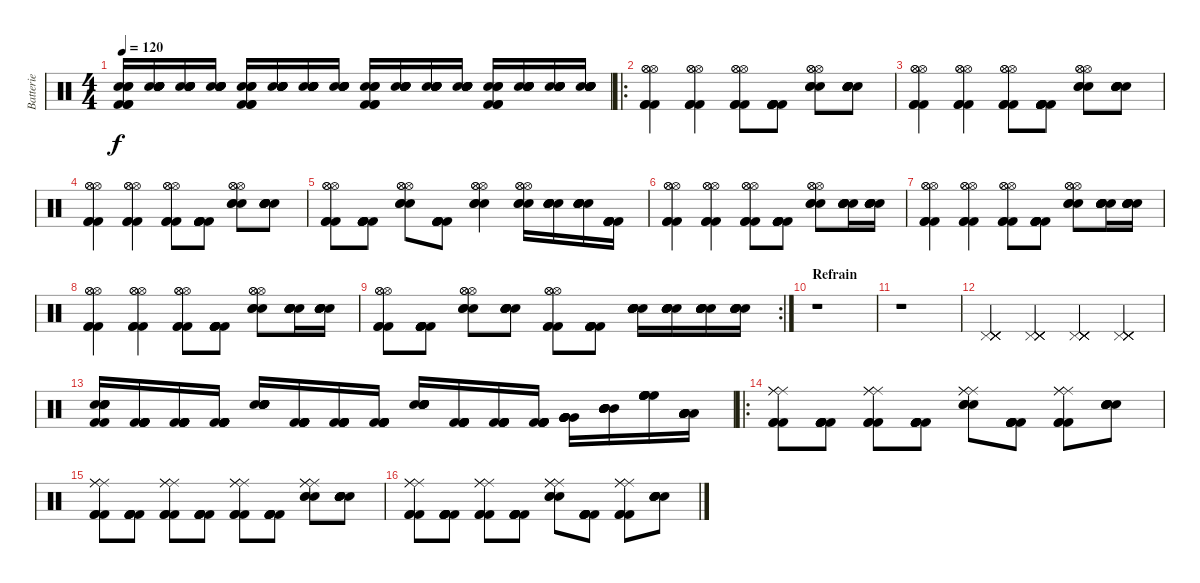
\track ("Batterie" "Batterie") {instrument percussion}
\staff {score}
\articulation defaults
\ts (4 4)
\tempo 120
\clef neutral
\ks c
("Kick (hit) 2" "Kick (hit) 2" "Kick (hit) 2" "Snare (hit) 2" "Snare (hit) 2" "Snare (hit) 2").16{dy f} ("Snare (hit) 2" "Snare (hit) 2" "Snare (hit) 2" "Snare (hit) 2" "Snare (hit) 2" "Snare (hit) 2").16 ("Snare (hit) 2" "Snare (hit) 2" "Snare (hit) 2" "Snare (hit) 2" "Snare (hit) 2" "Snare (hit) 2").16 ("Snare (hit) 2" "Snare (hit) 2" "Snare (hit) 2" "Snare (hit) 2" "Snare (hit) 2" "Snare (hit) 2").16 ("Kick (hit) 2" "Kick (hit) 2" "Kick (hit) 2" "Snare (hit) 2" "Snare (hit) 2" "Snare (hit) 2").16 ("Snare (hit) 2" "Snare (hit) 2" "Snare (hit) 2" "Snare (hit) 2" "Snare (hit) 2" "Snare (hit) 2").16 ("Snare (hit) 2" "Snare (hit) 2" "Snare (hit) 2" "Snare (hit) 2" "Snare (hit) 2" "Snare (hit) 2").16 ("Snare (hit) 2" "Snare (hit) 2" "Snare (hit) 2" "Snare (hit) 2" "Snare (hit) 2" "Snare (hit) 2").16 ("Kick (hit) 2" "Kick (hit) 2" "Kick (hit) 2" "Snare (hit) 2" "Snare (hit) 2" "Snare (hit) 2").16 ("Snare (hit) 2" "Snare (hit) 2" "Snare (hit) 2" "Snare (hit) 2" "Snare (hit) 2" "Snare (hit) 2").16 ("Snare (hit) 2" "Snare (hit) 2" "Snare (hit) 2" "Snare (hit) 2" "Snare (hit) 2" "Snare (hit) 2").16 ("Snare (hit) 2" "Snare (hit) 2" "Snare (hit) 2" "Snare (hit) 2" "Snare (hit) 2" "Snare (hit) 2").16 ("Kick (hit) 2" "Kick (hit) 2" "Kick (hit) 2" "Snare (hit) 2" "Snare (hit) 2" "Snare (hit) 2").16 ("Snare (hit) 2" "Snare (hit) 2" "Snare (hit) 2" "Snare (hit) 2" "Snare (hit) 2" "Snare (hit) 2").16 ("Snare (hit) 2" "Snare (hit) 2" "Snare (hit) 2" "Snare (hit) 2" "Snare (hit) 2" "Snare (hit) 2").16 ("Snare (hit) 2" "Snare (hit) 2" "Snare (hit) 2" "Snare (hit) 2" "Snare (hit) 2" "Snare (hit) 2").16 |
\ro
("Hi-Hat (open)" "Hi-Hat (open)" "Hi-Hat (open)" "Kick (hit) 2" "Kick (hit) 2" "Kick (hit) 2").4 ("Hi-Hat (open)" "Hi-Hat (open)" "Hi-Hat (open)" "Kick (hit) 2" "Kick (hit) 2" "Kick (hit) 2").4 ("Hi-Hat (open)" "Hi-Hat (open)" "Hi-Hat (open)" "Kick (hit) 2" "Kick (hit) 2" "Kick (hit) 2").8 ("Kick (hit) 2" "Kick (hit) 2" "Kick (hit) 2" "Kick (hit) 2" "Kick (hit) 2" "Kick (hit) 2").8 ("Hi-Hat (open)" "Hi-Hat (open)" "Hi-Hat (open)" "Snare (hit) 2" "Snare (hit) 2" "Snare (hit) 2").8 ("Snare (hit) 2" "Snare (hit) 2" "Snare (hit) 2" "Snare (hit) 2" "Snare (hit) 2" "Snare (hit) 2").8 |
("Hi-Hat (open)" "Hi-Hat (open)" "Hi-Hat (open)" "Kick (hit) 2" "Kick (hit) 2" "Kick (hit) 2").4 ("Hi-Hat (open)" "Hi-Hat (open)" "Hi-Hat (open)" "Kick (hit) 2" "Kick (hit) 2" "Kick (hit) 2").4 ("Hi-Hat (open)" "Hi-Hat (open)" "Hi-Hat (open)" "Kick (hit) 2" "Kick (hit) 2" "Kick (hit) 2").8 ("Kick (hit) 2" "Kick (hit) 2" "Kick (hit) 2" "Kick (hit) 2" "Kick (hit) 2" "Kick (hit) 2").8 ("Hi-Hat (open)" "Hi-Hat (open)" "Hi-Hat (open)" "Snare (hit) 2" "Snare (hit) 2" "Snare (hit) 2").8 ("Snare (hit) 2" "Snare (hit) 2" "Snare (hit) 2" "Snare (hit) 2" "Snare (hit) 2" "Snare (hit) 2").8 |
("Hi-Hat (open)" "Hi-Hat (open)" "Hi-Hat (open)" "Kick (hit) 2" "Kick (hit) 2" "Kick (hit) 2").4 ("Hi-Hat (open)" "Hi-Hat (open)" "Hi-Hat (open)" "Kick (hit) 2" "Kick (hit) 2" "Kick (hit) 2").4 ("Hi-Hat (open)" "Hi-Hat (open)" "Hi-Hat (open)" "Kick (hit) 2" "Kick (hit) 2" "Kick (hit) 2").8 ("Kick (hit) 2" "Kick (hit) 2" "Kick (hit) 2" "Kick (hit) 2" "Kick (hit) 2" "Kick (hit) 2").8 ("Hi-Hat (open)" "Hi-Hat (open)" "Hi-Hat (open)" "Snare (hit) 2" "Snare (hit) 2" "Snare (hit) 2").8 ("Snare (hit) 2" "Snare (hit) 2" "Snare (hit) 2" "Snare (hit) 2" "Snare (hit) 2" "Snare (hit) 2").8 |
("Hi-Hat (open)" "Hi-Hat (open)" "Hi-Hat (open)" "Kick (hit) 2" "Kick (hit) 2" "Kick (hit) 2").8 ("Kick (hit) 2" "Kick (hit) 2" "Kick (hit) 2" "Kick (hit) 2" "Kick (hit) 2" "Kick (hit) 2").8 ("Snare (hit) 2" "Snare (hit) 2" "Snare (hit) 2" "Hi-Hat (open)" "Hi-Hat (open)" "Hi-Hat (open)").8 ("Kick (hit) 2" "Kick (hit) 2" "Kick (hit) 2" "Kick (hit) 2" "Kick (hit) 2" "Kick (hit) 2").8 ("Snare (hit) 2" "Snare (hit) 2" "Hi-Hat (open)" "Hi-Hat (open)" "Snare (hit) 2" "Hi-Hat (open)").4 ("Hi-Hat (open)" "Hi-Hat (open)" "Hi-Hat (open)" "Snare (hit) 2" "Snare (hit) 2" "Snare (hit) 2").16 ("Snare (hit) 2" "Snare (hit) 2" "Snare (hit) 2" "Snare (hit) 2" "Snare (hit) 2" "Snare (hit) 2").16 ("Snare (hit) 2" "Snare (hit) 2" "Snare (hit) 2" "Snare (hit) 2" "Snare (hit) 2" "Snare (hit) 2").16 ("Kick (hit) 2" "Kick (hit) 2" "Kick (hit) 2" "Kick (hit) 2" "Kick (hit) 2" "Kick (hit) 2").16 |
("Hi-Hat (open)" "Hi-Hat (open)" "Hi-Hat (open)" "Kick (hit) 2" "Kick (hit) 2" "Kick (hit) 2").4 ("Hi-Hat (open)" "Hi-Hat (open)" "Hi-Hat (open)" "Kick (hit) 2" "Kick (hit) 2" "Kick (hit) 2").4 ("Hi-Hat (open)" "Hi-Hat (open)" "Hi-Hat (open)" "Kick (hit) 2" "Kick (hit) 2" "Kick (hit) 2").8 ("Kick (hit) 2" "Kick (hit) 2" "Kick (hit) 2" "Kick (hit) 2" "Kick (hit) 2" "Kick (hit) 2").8 ("Hi-Hat (open)" "Hi-Hat (open)" "Hi-Hat (open)" "Snare (hit) 2" "Snare (hit) 2" "Snare (hit) 2").8 ("Snare (hit) 2" "Snare (hit) 2" "Snare (hit) 2" "Snare (hit) 2" "Snare (hit) 2" "Snare (hit) 2").16 ("Snare (hit) 2" "Snare (hit) 2" "Snare (hit) 2" "Snare (hit) 2" "Snare (hit) 2" "Snare (hit) 2").16 |
("Hi-Hat (open)" "Hi-Hat (open)" "Hi-Hat (open)" "Kick (hit) 2" "Kick (hit) 2" "Kick (hit) 2").4 ("Hi-Hat (open)" "Hi-Hat (open)" "Hi-Hat (open)" "Kick (hit) 2" "Kick (hit) 2" "Kick (hit) 2").4 ("Hi-Hat (open)" "Hi-Hat (open)" "Hi-Hat (open)" "Kick (hit) 2" "Kick (hit) 2" "Kick (hit) 2").8 ("Kick (hit) 2" "Kick (hit) 2" "Kick (hit) 2" "Kick (hit) 2" "Kick (hit) 2" "Kick (hit) 2").8 ("Hi-Hat (open)" "Hi-Hat (open)" "Hi-Hat (open)" "Snare (hit) 2" "Snare (hit) 2" "Snare (hit) 2").8 ("Snare (hit) 2" "Snare (hit) 2" "Snare (hit) 2" "Snare (hit) 2" "Snare (hit) 2" "Snare (hit) 2").16 ("Snare (hit) 2" "Snare (hit) 2" "Snare (hit) 2" "Snare (hit) 2" "Snare (hit) 2" "Snare (hit) 2").16 |
("Hi-Hat (open)" "Hi-Hat (open)" "Hi-Hat (open)" "Kick (hit) 2" "Kick (hit) 2" "Kick (hit) 2").4 ("Hi-Hat (open)" "Hi-Hat (open)" "Hi-Hat (open)" "Kick (hit) 2" "Kick (hit) 2" "Kick (hit) 2").4 ("Hi-Hat (open)" "Hi-Hat (open)" "Hi-Hat (open)" "Kick (hit) 2" "Kick (hit) 2" "Kick (hit) 2").8 ("Kick (hit) 2" "Kick (hit) 2" "Kick (hit) 2" "Kick (hit) 2" "Kick (hit) 2" "Kick (hit) 2").8 ("Hi-Hat (open)" "Hi-Hat (open)" "Hi-Hat (open)" "Snare (hit) 2" "Snare (hit) 2" "Snare (hit) 2").8 ("Snare (hit) 2" "Snare (hit) 2" "Snare (hit) 2" "Snare (hit) 2" "Snare (hit) 2" "Snare (hit) 2").16 ("Snare (hit) 2" "Snare (hit) 2" "Snare (hit) 2" "Snare (hit) 2" "Snare (hit) 2" "Snare (hit) 2").16 |
\rc 2
("Hi-Hat (open)" "Hi-Hat (open)" "Hi-Hat (open)" "Kick (hit) 2" "Kick (hit) 2" "Kick (hit) 2").8 ("Kick (hit) 2" "Kick (hit) 2" "Kick (hit) 2" "Kick (hit) 2" "Kick (hit) 2" "Kick (hit) 2").8 ("Hi-Hat (open)" "Hi-Hat (open)" "Hi-Hat (open)" "Snare (hit) 2" "Snare (hit) 2" "Snare (hit) 2").8 ("Snare (hit) 2" "Snare (hit) 2" "Snare (hit) 2" "Snare (hit) 2" "Snare (hit) 2" "Snare (hit) 2").8 ("Hi-Hat (open)" "Kick (hit) 2" "Kick (hit) 2" "Kick (hit) 2" "Hi-Hat (open)" "Hi-Hat (open)").8 ("Kick (hit) 2" "Kick (hit) 2" "Kick (hit) 2" "Kick (hit) 2" "Kick (hit) 2" "Kick (hit) 2").8 ("Snare (hit) 2" "Snare (hit) 2" "Snare (hit) 2" "Snare (hit) 2" "Snare (hit) 2" "Snare (hit) 2").16 ("Snare (hit) 2" "Snare (hit) 2" "Snare (hit) 2" "Snare (hit) 2" "Snare (hit) 2" "Snare (hit) 2").16 ("Snare (hit) 2" "Snare (hit) 2" "Snare (hit) 2" "Snare (hit) 2" "Snare (hit) 2" "Snare (hit) 2").16 ("Snare (hit) 2" "Snare (hit) 2" "Snare (hit) 2" "Snare (hit) 2" "Snare (hit) 2" "Snare (hit) 2").16 |
\section ("" "Refrain")
r.1 |
r.1 |
("Pedal Hi-Hat (hit)" "Pedal Hi-Hat (hit)" "Pedal Hi-Hat (hit)" "Pedal Hi-Hat (hit)" "Pedal Hi-Hat (hit)" "Pedal Hi-Hat (hit)").4 ("Pedal Hi-Hat (hit)" "Pedal Hi-Hat (hit)" "Pedal Hi-Hat (hit)" "Pedal Hi-Hat (hit)" "Pedal Hi-Hat (hit)" "Pedal Hi-Hat (hit)").4 ("Pedal Hi-Hat (hit)" "Pedal Hi-Hat (hit)" "Pedal Hi-Hat (hit)" "Pedal Hi-Hat (hit)" "Pedal Hi-Hat (hit)" "Pedal Hi-Hat (hit)").4 ("Pedal Hi-Hat (hit)" "Pedal Hi-Hat (hit)" "Pedal Hi-Hat (hit)" "Pedal Hi-Hat (hit)" "Pedal Hi-Hat (hit)" "Pedal Hi-Hat (hit)").4 |
("Snare (hit) 2" "Snare (hit) 2" "Snare (hit) 2" "Snare (hit) 2" "Kick (hit) 2" "Kick (hit) 2").16 ("Kick (hit) 2" "Kick (hit) 2" "Kick (hit) 2" "Kick (hit) 2" "Kick (hit) 2" "Kick (hit) 2").16 ("Kick (hit) 2" "Kick (hit) 2" "Kick (hit) 2" "Kick (hit) 2" "Kick (hit) 2" "Kick (hit) 2").16 ("Kick (hit) 2" "Kick (hit) 2" "Kick (hit) 2" "Kick (hit) 2" "Kick (hit) 2" "Kick (hit) 2").16 ("Snare (hit) 2" "Snare (hit) 2" "Snare (hit) 2" "Snare (hit) 2" "Snare (hit) 2" "Snare (hit) 2").16 ("Kick (hit) 2" "Kick (hit) 2" "Kick (hit) 2" "Kick (hit) 2" "Kick (hit) 2" "Kick (hit) 2").16 ("Kick (hit) 2" "Kick (hit) 2" "Kick (hit) 2" "Kick (hit) 2" "Kick (hit) 2" "Kick (hit) 2").16 ("Kick (hit) 2" "Kick (hit) 2" "Kick (hit) 2" "Kick (hit) 2" "Kick (hit) 2" "Kick (hit) 2").16 ("Snare (hit) 2" "Snare (hit) 2" "Snare (hit) 2" "Snare (hit) 2" "Snare (hit) 2" "Snare (hit) 2").16 ("Kick (hit) 2" "Kick (hit) 2" "Kick (hit) 2" "Kick (hit) 2" "Kick (hit) 2" "Kick (hit) 2").16 ("Kick (hit) 2" "Kick (hit) 2" "Kick (hit) 2" "Kick (hit) 2" "Kick (hit) 2" "Kick (hit) 2").16 ("Kick (hit) 2" "Kick (hit) 2" "Kick (hit) 2" "Kick (hit) 2" "Kick (hit) 2" "Kick (hit) 2").16 ("Very Low Tom (hit)" "Very Low Tom (hit)" "Very Low Tom (hit)" "Very Low Tom (hit)" "Very Low Tom (hit)" "Very Low Tom (hit)").16 ("Mid Tom (hit)" "Mid Tom (hit)" "Mid Tom (hit)" "Mid Tom (hit)" "Mid Tom (hit)" "Mid Tom (hit)").16 ("High Floor Tom (hit)" "High Floor Tom (hit)" "High Floor Tom (hit)" "High Floor Tom (hit)" "High Floor Tom (hit)" "High Floor Tom (hit)").16 ("Low Floor Tom (hit)" "Low Floor Tom (hit)" "Low Floor Tom (hit)" "Low Floor Tom (hit)" "Low Floor Tom (hit)" "Low Floor Tom (hit)").16 |
\ro
("Ride (middle)" "Ride (middle)" "Ride (middle)" "Kick (hit) 2" "Kick (hit) 2" "Kick (hit) 2").8 ("Kick (hit) 2" "Kick (hit) 2" "Kick (hit) 2" "Kick (hit) 2" "Kick (hit) 2" "Kick (hit) 2").8 ("Ride (middle)" "Ride (middle)" "Ride (middle)" "Kick (hit) 2" "Kick (hit) 2" "Kick (hit) 2").8 ("Kick (hit) 2" "Kick (hit) 2" "Kick (hit) 2" "Kick (hit) 2" "Kick (hit) 2" "Kick (hit) 2").8 ("Snare (hit) 2" "Snare (hit) 2" "Ride (middle)" "Ride (middle)" "Ride (middle)" "Snare (hit) 2").8 ("Kick (hit) 2" "Kick (hit) 2" "Kick (hit) 2" "Kick (hit) 2" "Kick (hit) 2" "Kick (hit) 2").8 ("Ride (middle)" "Ride (middle)" "Ride (middle)" "Kick (hit) 2" "Kick (hit) 2" "Kick (hit) 2").8 ("Snare (hit) 2" "Snare (hit) 2" "Snare (hit) 2" "Snare (hit) 2" "Snare (hit) 2" "Snare (hit) 2").8 |
("Ride (middle)" "Ride (middle)" "Ride (middle)" "Kick (hit) 2" "Kick (hit) 2" "Kick (hit) 2").8 ("Kick (hit) 2" "Kick (hit) 2" "Kick (hit) 2" "Kick (hit) 2" "Kick (hit) 2" "Kick (hit) 2").8 ("Ride (middle)" "Ride (middle)" "Ride (middle)" "Kick (hit) 2" "Kick (hit) 2" "Kick (hit) 2").8 ("Kick (hit) 2" "Kick (hit) 2" "Kick (hit) 2" "Kick (hit) 2" "Kick (hit) 2" "Kick (hit) 2").8 ("Kick (hit) 2" "Kick (hit) 2" "Ride (middle)" "Ride (middle)" "Ride (middle)" "Kick (hit) 2").8 ("Kick (hit) 2" "Kick (hit) 2" "Kick (hit) 2" "Kick (hit) 2" "Kick (hit) 2" "Kick (hit) 2").8 ("Ride (middle)" "Ride (middle)" "Ride (middle)" "Snare (hit) 2" "Snare (hit) 2" "Snare (hit) 2").8 ("Snare (hit) 2" "Snare (hit) 2" "Snare (hit) 2" "Snare (hit) 2" "Snare (hit) 2" "Snare (hit) 2").8 |
("Ride (middle)" "Ride (middle)" "Ride (middle)" "Kick (hit) 2" "Kick (hit) 2" "Kick (hit) 2").8 ("Kick (hit) 2" "Kick (hit) 2" "Kick (hit) 2" "Kick (hit) 2" "Kick (hit) 2" "Kick (hit) 2").8 ("Ride (middle)" "Ride (middle)" "Ride (middle)" "Kick (hit) 2" "Kick (hit) 2" "Kick (hit) 2").8 ("Kick (hit) 2" "Kick (hit) 2" "Kick (hit) 2" "Kick (hit) 2" "Kick (hit) 2" "Kick (hit) 2").8 ("Snare (hit) 2" "Snare (hit) 2" "Ride (middle)" "Ride (middle)" "Ride (middle)" "Snare (hit) 2").8 ("Kick (hit) 2" "Kick (hit) 2" "Kick (hit) 2" "Kick (hit) 2" "Kick (hit) 2" "Kick (hit) 2").8 ("Ride (middle)" "Ride (middle)" "Ride (middle)" "Kick (hit) 2" "Kick (hit) 2" "Kick (hit) 2").8 ("Snare (hit) 2" "Snare (hit) 2" "Snare (hit) 2" "Snare (hit) 2" "Snare (hit) 2" "Snare (hit) 2").8
